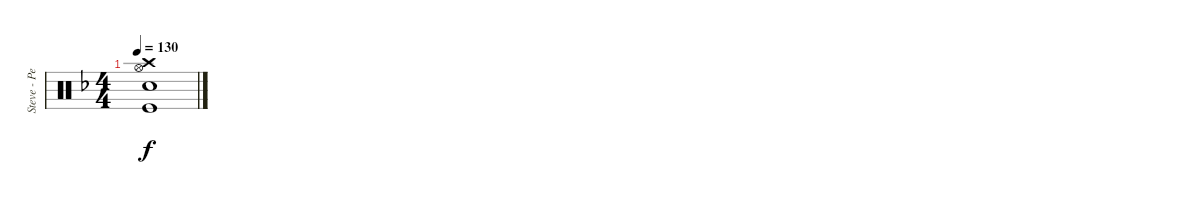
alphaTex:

\track ("Steve - Percussion" "Steve - Pe") {instrument percussion}
\staff {score}
\articulation defaults
\ts (4 4)
\tempo 130
\clef neutral
\ks f
("Kick (hit)" "Snare (hit) 2" "Hi-Hat (open)" "Crash high (hit)").1{dy f}
